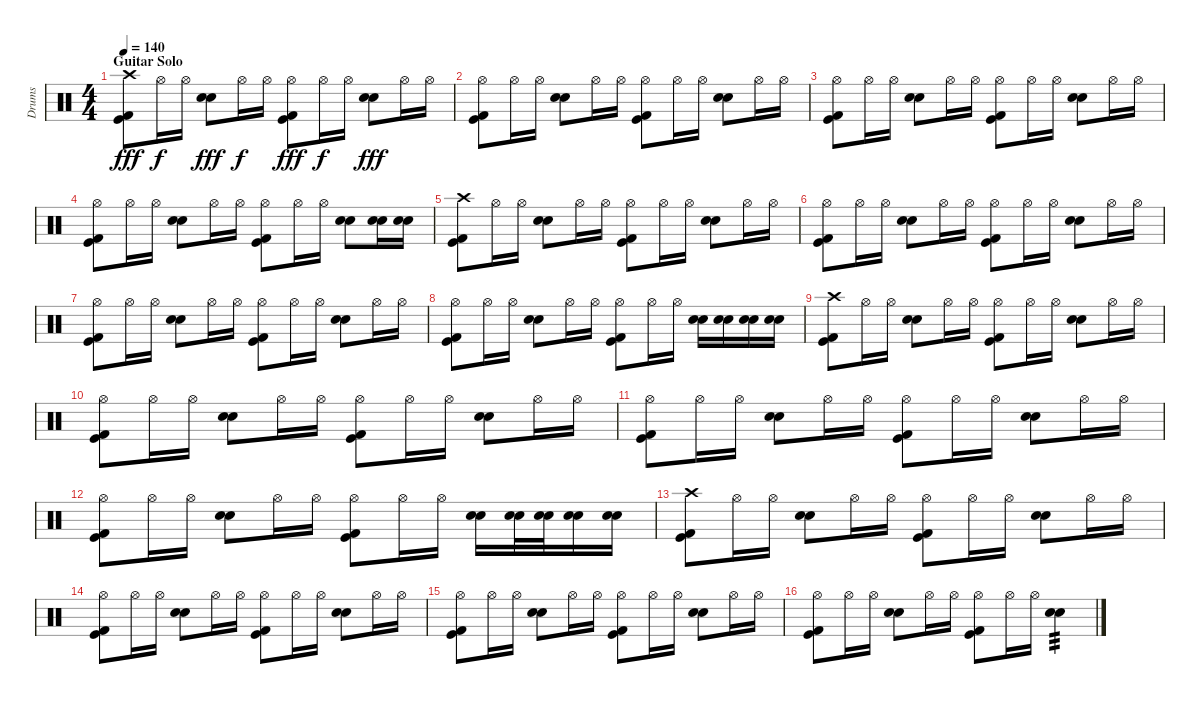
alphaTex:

\track ("Drums" "Drums") {instrument percussion}
\staff {score}
\articulation defaults
\ts (4 4)
\section ("" "Guitar Solo")
\tempo 140
\clef neutral
\ks c
("Crash high (hit)" "Kick (hit)" "Kick (hit) 2").8{dy fff} "Hi-Hat (open)".16{dy f} "Hi-Hat (open)".16 ("Electric Snare (hit)" "Electric Snare (hit)").8{dy fff} "Hi-Hat (open)".16{dy f} "Hi-Hat (open)".16 ("Hi-Hat (open)" "Kick (hit)" "Kick (hit) 2").8{dy fff} "Hi-Hat (open)".16{dy f} "Hi-Hat (open)".16 ("Electric Snare (hit)" "Electric Snare (hit)").8{dy fff} "Hi-Hat (open)".16 "Hi-Hat (open)".16 |
("Hi-Hat (open)" "Kick (hit)" "Kick (hit) 2").8 "Hi-Hat (open)".16 "Hi-Hat (open)".16 ("Electric Snare (hit)" "Electric Snare (hit)").8 "Hi-Hat (open)".16 "Hi-Hat (open)".16 ("Hi-Hat (open)" "Kick (hit)" "Kick (hit) 2").8 "Hi-Hat (open)".16 "Hi-Hat (open)".16 ("Electric Snare (hit)" "Electric Snare (hit)").8 "Hi-Hat (open)".16 "Hi-Hat (open)".16 |
("Hi-Hat (open)" "Kick (hit)" "Kick (hit) 2").8 "Hi-Hat (open)".16 "Hi-Hat (open)".16 ("Electric Snare (hit)" "Electric Snare (hit)").8 "Hi-Hat (open)".16 "Hi-Hat (open)".16 ("Hi-Hat (open)" "Kick (hit)" "Kick (hit) 2").8 "Hi-Hat (open)".16 "Hi-Hat (open)".16 ("Electric Snare (hit)" "Electric Snare (hit)").8 "Hi-Hat (open)".16 "Hi-Hat (open)".16 |
("Hi-Hat (open)" "Kick (hit)" "Kick (hit) 2").8 "Hi-Hat (open)".16 "Hi-Hat (open)".16 ("Electric Snare (hit)" "Electric Snare (hit)").8 "Hi-Hat (open)".16 "Hi-Hat (open)".16 ("Hi-Hat (open)" "Kick (hit)" "Kick (hit) 2").8 "Hi-Hat (open)".16 "Hi-Hat (open)".16 ("Electric Snare (hit)" "Electric Snare (hit)").8 ("Electric Snare (hit)" "Electric Snare (hit)").16 ("Electric Snare (hit)" "Electric Snare (hit)").16 |
("Crash high (hit)" "Kick (hit)" "Kick (hit) 2").8 "Hi-Hat (open)".16 "Hi-Hat (open)".16 ("Electric Snare (hit)" "Electric Snare (hit)").8 "Hi-Hat (open)".16 "Hi-Hat (open)".16 ("Hi-Hat (open)" "Kick (hit)" "Kick (hit) 2").8 "Hi-Hat (open)".16 "Hi-Hat (open)".16 ("Electric Snare (hit)" "Electric Snare (hit)").8 "Hi-Hat (open)".16 "Hi-Hat (open)".16 |
("Hi-Hat (open)" "Kick (hit)" "Kick (hit) 2").8 "Hi-Hat (open)".16 "Hi-Hat (open)".16 ("Electric Snare (hit)" "Electric Snare (hit)").8 "Hi-Hat (open)".16 "Hi-Hat (open)".16 ("Hi-Hat (open)" "Kick (hit)" "Kick (hit) 2").8 "Hi-Hat (open)".16 "Hi-Hat (open)".16 ("Electric Snare (hit)" "Electric Snare (hit)").8 "Hi-Hat (open)".16 "Hi-Hat (open)".16 |
("Hi-Hat (open)" "Kick (hit)" "Kick (hit) 2").8 "Hi-Hat (open)".16 "Hi-Hat (open)".16 ("Electric Snare (hit)" "Electric Snare (hit)").8 "Hi-Hat (open)".16 "Hi-Hat (open)".16 ("Hi-Hat (open)" "Kick (hit)" "Kick (hit) 2").8 "Hi-Hat (open)".16 "Hi-Hat (open)".16 ("Electric Snare (hit)" "Electric Snare (hit)").8 "Hi-Hat (open)".16 "Hi-Hat (open)".16 |
("Hi-Hat (open)" "Kick (hit)" "Kick (hit) 2").8 "Hi-Hat (open)".16 "Hi-Hat (open)".16 ("Electric Snare (hit)" "Electric Snare (hit)").8 "Hi-Hat (open)".16 "Hi-Hat (open)".16 ("Hi-Hat (open)" "Kick (hit)" "Kick (hit) 2").8 "Hi-Hat (open)".16 "Hi-Hat (open)".16 ("Electric Snare (hit)" "Electric Snare (hit)").16 ("Electric Snare (hit)" "Electric Snare (hit)").16 ("Electric Snare (hit)" "Electric Snare (hit)").16 ("Electric Snare (hit)" "Electric Snare (hit)").16 |
("Crash high (hit)" "Kick (hit)" "Kick (hit) 2").8 "Hi-Hat (open)".16 "Hi-Hat (open)".16 ("Electric Snare (hit)" "Electric Snare (hit)").8 "Hi-Hat (open)".16 "Hi-Hat (open)".16 ("Hi-Hat (open)" "Kick (hit)" "Kick (hit) 2").8 "Hi-Hat (open)".16 "Hi-Hat (open)".16 ("Electric Snare (hit)" "Electric Snare (hit)").8 "Hi-Hat (open)".16 "Hi-Hat (open)".16 |
("Hi-Hat (open)" "Kick (hit)" "Kick (hit) 2").8 "Hi-Hat (open)".16 "Hi-Hat (open)".16 ("Electric Snare (hit)" "Electric Snare (hit)").8 "Hi-Hat (open)".16 "Hi-Hat (open)".16 ("Hi-Hat (open)" "Kick (hit)" "Kick (hit) 2").8 "Hi-Hat (open)".16 "Hi-Hat (open)".16 ("Electric Snare (hit)" "Electric Snare (hit)").8 "Hi-Hat (open)".16 "Hi-Hat (open)".16 |
("Hi-Hat (open)" "Kick (hit)" "Kick (hit) 2").8 "Hi-Hat (open)".16 "Hi-Hat (open)".16 ("Electric Snare (hit)" "Electric Snare (hit)").8 "Hi-Hat (open)".16 "Hi-Hat (open)".16 ("Hi-Hat (open)" "Kick (hit)" "Kick (hit) 2").8 "Hi-Hat (open)".16 "Hi-Hat (open)".16 ("Electric Snare (hit)" "Electric Snare (hit)").8 "Hi-Hat (open)".16 "Hi-Hat (open)".16 |
("Hi-Hat (open)" "Kick (hit)" "Kick (hit) 2").8 "Hi-Hat (open)".16 "Hi-Hat (open)".16 ("Electric Snare (hit)" "Electric Snare (hit)").8 "Hi-Hat (open)".16 "Hi-Hat (open)".16 ("Hi-Hat (open)" "Kick (hit)" "Kick (hit) 2").8 "Hi-Hat (open)".16 "Hi-Hat (open)".16 ("Electric Snare (hit)" "Electric Snare (hit)").16 ("Electric Snare (hit)" "Electric Snare (hit)").32 ("Electric Snare (hit)" "Electric Snare (hit)").32 ("Electric Snare (hit)" "Electric Snare (hit)").16 ("Electric Snare (hit)" "Electric Snare (hit)").16 |
("Crash high (hit)" "Kick (hit)" "Kick (hit) 2").8 "Hi-Hat (open)".16 "Hi-Hat (open)".16 ("Electric Snare (hit)" "Electric Snare (hit)").8 "Hi-Hat (open)".16 "Hi-Hat (open)".16 ("Hi-Hat (open)" "Kick (hit)" "Kick (hit) 2").8 "Hi-Hat (open)".16 "Hi-Hat (open)".16 ("Electric Snare (hit)" "Electric Snare (hit)").8 "Hi-Hat (open)".16 "Hi-Hat (open)".16 |
("Hi-Hat (open)" "Kick (hit)" "Kick (hit) 2").8 "Hi-Hat (open)".16 "Hi-Hat (open)".16 ("Electric Snare (hit)" "Electric Snare (hit)").8 "Hi-Hat (open)".16 "Hi-Hat (open)".16 ("Hi-Hat (open)" "Kick (hit)" "Kick (hit) 2").8 "Hi-Hat (open)".16 "Hi-Hat (open)".16 ("Electric Snare (hit)" "Electric Snare (hit)").8 "Hi-Hat (open)".16 "Hi-Hat (open)".16 |
("Hi-Hat (open)" "Kick (hit)" "Kick (hit) 2").8 "Hi-Hat (open)".16 "Hi-Hat (open)".16 ("Electric Snare (hit)" "Electric Snare (hit)").8 "Hi-Hat (open)".16 "Hi-Hat (open)".16 ("Hi-Hat (open)" "Kick (hit)" "Kick (hit) 2").8 "Hi-Hat (open)".16 "Hi-Hat (open)".16 ("Electric Snare (hit)" "Electric Snare (hit)").8 "Hi-Hat (open)".16 "Hi-Hat (open)".16 |
("Hi-Hat (open)" "Kick (hit)" "Kick (hit) 2").8 "Hi-Hat (open)".16 "Hi-Hat (open)".16 ("Electric Snare (hit)" "Electric Snare (hit)").8 "Hi-Hat (open)".16 "Hi-Hat (open)".16 ("Hi-Hat (open)" "Kick (hit)" "Kick (hit) 2").8 "Hi-Hat (open)".16 "Hi-Hat (open)".16 ("Electric Snare (hit)" "Electric Snare (hit)").4{tp 3}
